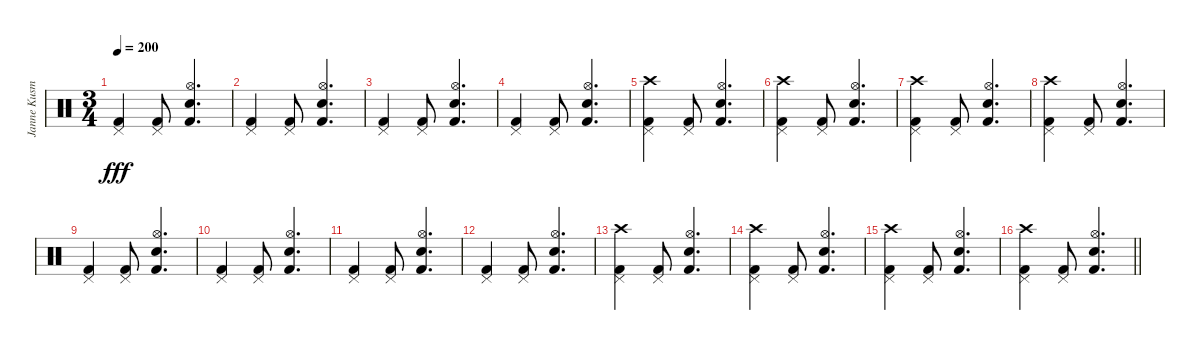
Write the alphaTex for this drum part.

\track ("Janne Kusmin" "Janne Kusm") {instrument percussion}
\staff {score}
\articulation defaults
\ts (3 4)
\tempo 200
\clef neutral
\ks c
("Pedal Hi-Hat (hit)" "Kick (hit) 2").4{dy fff} ("Pedal Hi-Hat (hit)" "Kick (hit) 2").8 ("Hi-Hat (open)" "Snare (hit) 2" "Kick (hit) 2").4{d} |
("Pedal Hi-Hat (hit)" "Kick (hit) 2").4 ("Pedal Hi-Hat (hit)" "Kick (hit) 2").8 ("Hi-Hat (open)" "Snare (hit) 2" "Kick (hit) 2").4{d} |
("Pedal Hi-Hat (hit)" "Kick (hit) 2").4 ("Pedal Hi-Hat (hit)" "Kick (hit) 2").8 ("Hi-Hat (open)" "Snare (hit) 2" "Kick (hit) 2").4{d} |
("Pedal Hi-Hat (hit)" "Kick (hit) 2").4 ("Pedal Hi-Hat (hit)" "Kick (hit) 2").8 ("Hi-Hat (open)" "Snare (hit) 2" "Kick (hit) 2").4{d} |
("Crash high (hit)" "Pedal Hi-Hat (hit)" "Kick (hit) 2").4 ("Pedal Hi-Hat (hit)" "Kick (hit) 2").8 ("Hi-Hat (open)" "Snare (hit) 2" "Kick (hit) 2").4{d} |
("Crash high (hit)" "Pedal Hi-Hat (hit)" "Kick (hit) 2").4 ("Pedal Hi-Hat (hit)" "Kick (hit) 2").8 ("Hi-Hat (open)" "Snare (hit) 2" "Kick (hit) 2").4{d} |
("Crash high (hit)" "Pedal Hi-Hat (hit)" "Kick (hit) 2").4 ("Pedal Hi-Hat (hit)" "Kick (hit) 2").8 ("Hi-Hat (open)" "Snare (hit) 2" "Kick (hit) 2").4{d} |
("Crash high (hit)" "Pedal Hi-Hat (hit)" "Kick (hit) 2").4 ("Pedal Hi-Hat (hit)" "Kick (hit) 2").8 ("Hi-Hat (open)" "Snare (hit) 2" "Kick (hit) 2").4{d} |
("Pedal Hi-Hat (hit)" "Kick (hit) 2").4 ("Pedal Hi-Hat (hit)" "Kick (hit) 2").8 ("Hi-Hat (open)" "Snare (hit) 2" "Kick (hit) 2").4{d} |
("Pedal Hi-Hat (hit)" "Kick (hit) 2").4 ("Pedal Hi-Hat (hit)" "Kick (hit) 2").8 ("Hi-Hat (open)" "Snare (hit) 2" "Kick (hit) 2").4{d} |
("Pedal Hi-Hat (hit)" "Kick (hit) 2").4 ("Pedal Hi-Hat (hit)" "Kick (hit) 2").8 ("Hi-Hat (open)" "Snare (hit) 2" "Kick (hit) 2").4{d} |
("Pedal Hi-Hat (hit)" "Kick (hit) 2").4 ("Pedal Hi-Hat (hit)" "Kick (hit) 2").8 ("Hi-Hat (open)" "Snare (hit) 2" "Kick (hit) 2").4{d} |
("Crash high (hit)" "Pedal Hi-Hat (hit)" "Kick (hit) 2").4 ("Pedal Hi-Hat (hit)" "Kick (hit) 2").8 ("Hi-Hat (open)" "Snare (hit) 2" "Kick (hit) 2").4{d} |
("Crash high (hit)" "Pedal Hi-Hat (hit)" "Kick (hit) 2").4 ("Pedal Hi-Hat (hit)" "Kick (hit) 2").8 ("Hi-Hat (open)" "Snare (hit) 2" "Kick (hit) 2").4{d} |
("Crash high (hit)" "Pedal Hi-Hat (hit)" "Kick (hit) 2").4 ("Pedal Hi-Hat (hit)" "Kick (hit) 2").8 ("Hi-Hat (open)" "Snare (hit) 2" "Kick (hit) 2").4{d} |
\barLineRight lightlight
("Crash high (hit)" "Pedal Hi-Hat (hit)" "Kick (hit) 2").4 ("Pedal Hi-Hat (hit)" "Kick (hit) 2").8 ("Hi-Hat (open)" "Snare (hit) 2" "Kick (hit) 2").4{d}
